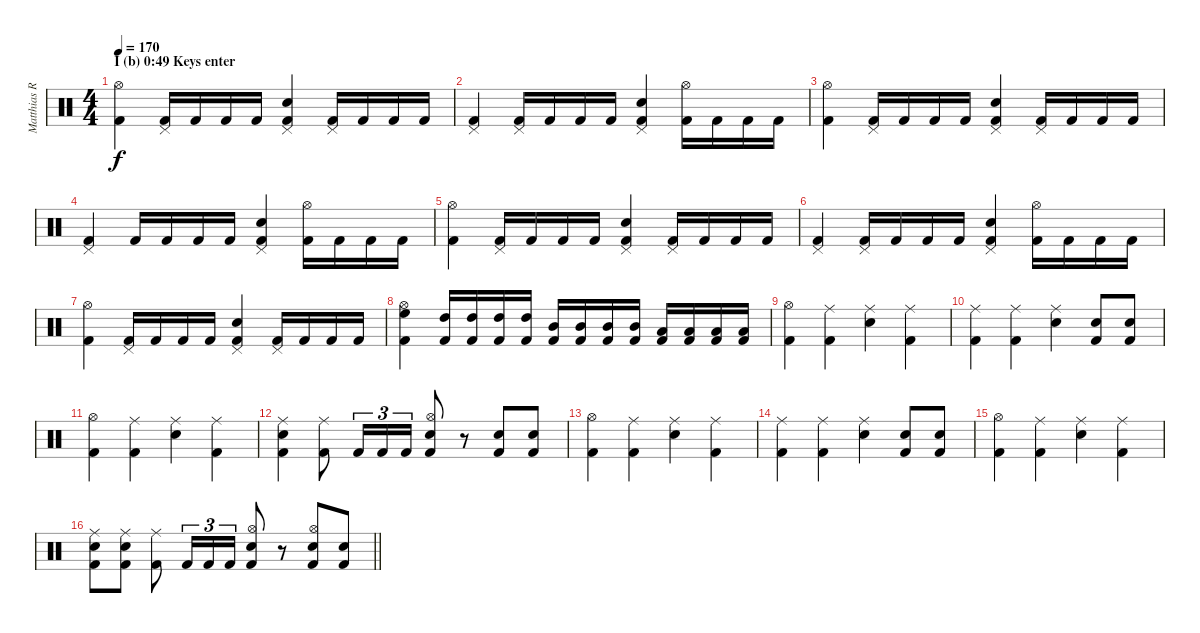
\track ("Matthias R." "Matthias R") {instrument percussion}
\staff {score}
\articulation defaults
\ts (4 4)
\section ("" "I (b) 0:49 Keys enter")
\tempo 170
\clef neutral
\ks c
("Kick (hit) 2" "Hi-Hat (open)").4{dy f} ("Kick (hit) 2" "Pedal Hi-Hat (hit)").16 "Kick (hit) 2".16 "Kick (hit) 2".16 "Kick (hit) 2".16 ("Kick (hit) 2" "Snare (hit) 2" "Pedal Hi-Hat (hit)").4 ("Kick (hit) 2" "Pedal Hi-Hat (hit)").16 "Kick (hit) 2".16 "Kick (hit) 2".16 "Kick (hit) 2".16 |
("Kick (hit) 2" "Pedal Hi-Hat (hit)").4 ("Kick (hit) 2" "Pedal Hi-Hat (hit)").16 "Kick (hit) 2".16 "Kick (hit) 2".16 "Kick (hit) 2".16 ("Kick (hit) 2" "Snare (hit) 2" "Pedal Hi-Hat (hit)").4 ("Kick (hit) 2" "Hi-Hat (open)").16 "Kick (hit) 2".16 "Kick (hit) 2".16 "Kick (hit) 2".16 |
("Kick (hit) 2" "Hi-Hat (open)").4 ("Kick (hit) 2" "Pedal Hi-Hat (hit)").16 "Kick (hit) 2".16 "Kick (hit) 2".16 "Kick (hit) 2".16 ("Kick (hit) 2" "Snare (hit) 2" "Pedal Hi-Hat (hit)").4 ("Kick (hit) 2" "Pedal Hi-Hat (hit)").16 "Kick (hit) 2".16 "Kick (hit) 2".16 "Kick (hit) 2".16 |
("Kick (hit) 2" "Pedal Hi-Hat (hit)").4 "Kick (hit) 2".16 "Kick (hit) 2".16 "Kick (hit) 2".16 "Kick (hit) 2".16 ("Kick (hit) 2" "Snare (hit) 2" "Pedal Hi-Hat (hit)").4 ("Kick (hit) 2" "Hi-Hat (open)").16 "Kick (hit) 2".16 "Kick (hit) 2".16 "Kick (hit) 2".16 |
("Kick (hit) 2" "Hi-Hat (open)").4 ("Kick (hit) 2" "Pedal Hi-Hat (hit)").16 "Kick (hit) 2".16 "Kick (hit) 2".16 "Kick (hit) 2".16 ("Kick (hit) 2" "Snare (hit) 2" "Pedal Hi-Hat (hit)").4 ("Kick (hit) 2" "Pedal Hi-Hat (hit)").16 "Kick (hit) 2".16 "Kick (hit) 2".16 "Kick (hit) 2".16 |
("Kick (hit) 2" "Pedal Hi-Hat (hit)").4 ("Kick (hit) 2" "Pedal Hi-Hat (hit)").16 "Kick (hit) 2".16 "Kick (hit) 2".16 "Kick (hit) 2".16 ("Kick (hit) 2" "Snare (hit) 2" "Pedal Hi-Hat (hit)").4 ("Kick (hit) 2" "Hi-Hat (open)").16 "Kick (hit) 2".16 "Kick (hit) 2".16 "Kick (hit) 2".16 |
("Kick (hit) 2" "Hi-Hat (open)").4 ("Kick (hit) 2" "Pedal Hi-Hat (hit)").16 "Kick (hit) 2".16 "Kick (hit) 2".16 "Kick (hit) 2".16 ("Kick (hit) 2" "Snare (hit) 2" "Pedal Hi-Hat (hit)").4 ("Kick (hit) 2" "Pedal Hi-Hat (hit)").16 "Kick (hit) 2".16 "Kick (hit) 2".16 "Kick (hit) 2".16 |
("High Floor Tom (hit)" "Kick (hit) 2" "Hi-Hat (open)").4 ("High Tom (hit)" "Kick (hit) 2").16 ("High Tom (hit)" "Kick (hit) 2").16 ("High Tom (hit)" "Kick (hit) 2").16 ("High Tom (hit)" "Kick (hit) 2").16 ("Mid Tom (hit)" "Kick (hit) 2").16 ("Mid Tom (hit)" "Kick (hit) 2").16 ("Mid Tom (hit)" "Kick (hit) 2").16 ("Mid Tom (hit)" "Kick (hit) 2").16 ("Low Tom (hit)" "Kick (hit) 2").16 ("Low Tom (hit)" "Kick (hit) 2").16 ("Low Tom (hit)" "Kick (hit) 2").16 ("Low Tom (hit)" "Kick (hit) 2").16 |
("Kick (hit) 2" "Hi-Hat (open)").4 ("Kick (hit) 2" "Ride (middle)").4 ("Snare (hit) 2" "Ride (middle)").4 ("Kick (hit) 2" "Ride (middle)").4 |
("Kick (hit) 2" "Ride (middle)").4 ("Kick (hit) 2" "Ride (middle)").4 ("Snare (hit) 2" "Ride (middle)").4 ("Kick (hit) 2" "Snare (hit) 2").8 ("Kick (hit) 2" "Snare (hit) 2").8 |
("Kick (hit) 2" "Hi-Hat (open)").4 ("Kick (hit) 2" "Ride (middle)").4 ("Snare (hit) 2" "Ride (middle)").4 ("Kick (hit) 2" "Ride (middle)").4 |
("Kick (hit) 2" "Snare (hit) 2" "Ride (middle)").4 ("Kick (hit) 2" "Ride (middle)").8 "Kick (hit) 2".16{tu (3 2)} "Kick (hit) 2".16{tu (3 2)} "Kick (hit) 2".16{tu (3 2)} ("Kick (hit) 2" "Snare (hit) 2" "Hi-Hat (open)").8 r.8 ("Kick (hit) 2" "Snare (hit) 2").8 ("Kick (hit) 2" "Snare (hit) 2").8 |
("Kick (hit) 2" "Hi-Hat (open)").4 ("Kick (hit) 2" "Ride (middle)").4 ("Snare (hit) 2" "Ride (middle)").4 ("Kick (hit) 2" "Ride (middle)").4 |
("Kick (hit) 2" "Ride (middle)").4 ("Kick (hit) 2" "Ride (middle)").4 ("Snare (hit) 2" "Ride (middle)").4 ("Kick (hit) 2" "Snare (hit) 2").8 ("Kick (hit) 2" "Snare (hit) 2").8 |
("Kick (hit) 2" "Hi-Hat (open)").4 ("Kick (hit) 2" "Ride (middle)").4 ("Snare (hit) 2" "Ride (middle)").4 ("Kick (hit) 2" "Ride (middle)").4 |
\barLineRight lightlight
("Kick (hit) 2" "Snare (hit) 2" "Ride (middle)").8 ("Kick (hit) 2" "Snare (hit) 2" "Ride (middle)").8 ("Kick (hit) 2" "Ride (middle)").8 "Kick (hit) 2".16{tu (3 2)} "Kick (hit) 2".16{tu (3 2)} "Kick (hit) 2".16{tu (3 2)} ("Kick (hit) 2" "Snare (hit) 2" "Hi-Hat (open)").8 r.8 ("Kick (hit) 2" "Snare (hit) 2" "Hi-Hat (open)").8 ("Kick (hit) 2" "Snare (hit) 2").8
